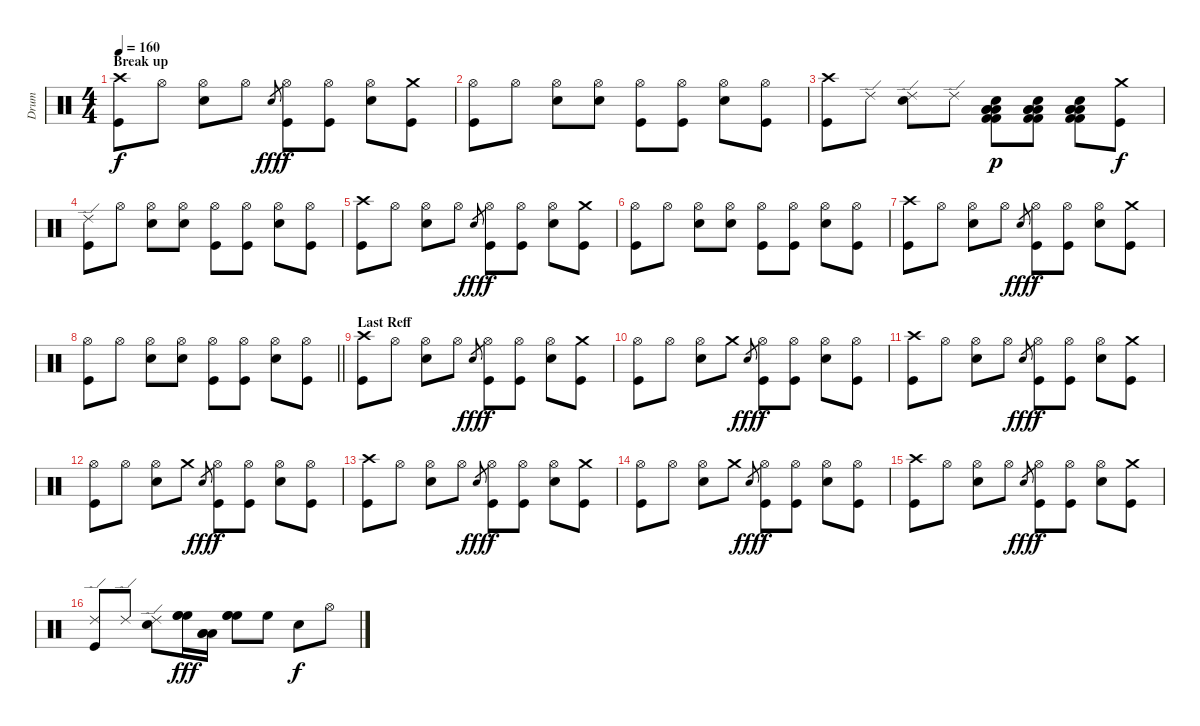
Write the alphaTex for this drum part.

\track ("Drum" "Drum") {instrument percussion}
\staff {score}
\articulation defaults
\ts (4 4)
\section ("" "Break up")
\tempo 160
\clef neutral
\ks c
("Crash high (hit)" "Kick (hit)").8{dy f} "Hi-Hat (open)".8 ("Hi-Hat (open)" "Electric Snare (hit)").8 "Hi-Hat (open)".8 "Electric Snare (hit)".8{gr dy fff} ("Hi-Hat (open)" "Kick (hit)").8{dy f} ("Hi-Hat (open)" "Kick (hit)").8 ("Hi-Hat (open)" "Electric Snare (hit)").8 ("Crash medium (hit)" "Kick (hit)").8 |
("Hi-Hat (open)" "Kick (hit)").8 "Hi-Hat (open)".8 ("Hi-Hat (open)" "Electric Snare (hit)").8 ("Hi-Hat (open)" "Electric Snare (hit)").8 ("Hi-Hat (open)" "Kick (hit)").8 ("Hi-Hat (open)" "Kick (hit)").8 ("Hi-Hat (open)" "Electric Snare (hit)").8 ("Hi-Hat (open)" "Kick (hit)").8 |
("Crash high (hit)" "Kick (hit)").8 "Ride (edge) 2".8 ("Ride (edge) 2" "Electric Snare (hit)").8 "Ride (edge) 2".8 ("Low Tom (hit)" "Low Floor Tom (hit)" "Low Floor Tom (hit)" "Kick (hit) 2" "Snare (hit) 2" "Kick (hit) 2").8{dy p} ("Low Tom (hit)" "Low Floor Tom (hit)" "Low Floor Tom (hit)" "Kick (hit) 2" "Snare (hit) 2" "Kick (hit) 2").8 ("Low Tom (hit)" "Low Floor Tom (hit)" "Low Floor Tom (hit)" "Kick (hit) 2" "Snare (hit) 2" "Kick (hit) 2").8 ("Crash medium (hit)" "Kick (hit)").8{dy f} |
("Ride (edge) 2" "Kick (hit)").8 "Hi-Hat (open)".8 ("Hi-Hat (open)" "Electric Snare (hit)").8 ("Hi-Hat (open)" "Electric Snare (hit)").8 ("Hi-Hat (open)" "Kick (hit)").8 ("Hi-Hat (open)" "Kick (hit)").8 ("Hi-Hat (open)" "Electric Snare (hit)").8 ("Hi-Hat (open)" "Kick (hit)").8 |
("Crash high (hit)" "Kick (hit)").8 "Hi-Hat (open)".8 ("Hi-Hat (open)" "Electric Snare (hit)").8 "Hi-Hat (open)".8 "Electric Snare (hit)".8{gr dy fff} ("Hi-Hat (open)" "Kick (hit)").8{dy f} ("Hi-Hat (open)" "Kick (hit)").8 ("Hi-Hat (open)" "Electric Snare (hit)").8 ("Crash medium (hit)" "Kick (hit)").8 |
("Hi-Hat (open)" "Kick (hit)").8 "Hi-Hat (open)".8 ("Hi-Hat (open)" "Electric Snare (hit)").8 ("Hi-Hat (open)" "Electric Snare (hit)").8 ("Hi-Hat (open)" "Kick (hit)").8 ("Hi-Hat (open)" "Kick (hit)").8 ("Hi-Hat (open)" "Electric Snare (hit)").8 ("Hi-Hat (open)" "Kick (hit)").8 |
("Crash high (hit)" "Kick (hit)").8 "Hi-Hat (open)".8 ("Hi-Hat (open)" "Electric Snare (hit)").8 "Hi-Hat (open)".8 "Electric Snare (hit)".8{gr dy fff} ("Hi-Hat (open)" "Kick (hit)").8{dy f} ("Hi-Hat (open)" "Kick (hit)").8 ("Hi-Hat (open)" "Electric Snare (hit)").8 ("Crash medium (hit)" "Kick (hit)").8 |
\barLineRight lightlight
("Hi-Hat (open)" "Kick (hit)").8 "Hi-Hat (open)".8 ("Hi-Hat (open)" "Electric Snare (hit)").8 ("Hi-Hat (open)" "Electric Snare (hit)").8 ("Hi-Hat (open)" "Kick (hit)").8 ("Hi-Hat (open)" "Kick (hit)").8 ("Hi-Hat (open)" "Electric Snare (hit)").8 ("Hi-Hat (open)" "Kick (hit)").8 |
\section ("" "Last Reff")
("Crash high (hit)" "Kick (hit)").8 "Hi-Hat (open)".8 ("Hi-Hat (open)" "Electric Snare (hit)").8 "Hi-Hat (open)".8 "Electric Snare (hit)".8{gr dy fff} ("Hi-Hat (open)" "Kick (hit)").8{dy f} ("Hi-Hat (open)" "Kick (hit)").8 ("Hi-Hat (open)" "Electric Snare (hit)").8 ("Crash medium (hit)" "Kick (hit)").8 |
("Hi-Hat (open)" "Kick (hit)").8 "Hi-Hat (open)".8 ("Hi-Hat (open)" "Electric Snare (hit)").8 "Crash medium (hit)".8 "Electric Snare (hit)".8{gr dy fff} ("Hi-Hat (open)" "Kick (hit)").8{dy f} ("Hi-Hat (open)" "Kick (hit)").8 ("Hi-Hat (open)" "Electric Snare (hit)").8 ("Hi-Hat (open)" "Kick (hit)").8 |
("Crash high (hit)" "Kick (hit)").8 "Hi-Hat (open)".8 ("Hi-Hat (open)" "Electric Snare (hit)").8 "Hi-Hat (open)".8 "Electric Snare (hit)".8{gr dy fff} ("Hi-Hat (open)" "Kick (hit)").8{dy f} ("Hi-Hat (open)" "Kick (hit)").8 ("Hi-Hat (open)" "Electric Snare (hit)").8 ("Crash medium (hit)" "Kick (hit)").8 |
("Hi-Hat (open)" "Kick (hit)").8 "Hi-Hat (open)".8 ("Hi-Hat (open)" "Electric Snare (hit)").8 "Crash medium (hit)".8 "Electric Snare (hit)".8{gr dy fff} ("Hi-Hat (open)" "Kick (hit)").8{dy f} ("Hi-Hat (open)" "Kick (hit)").8 ("Hi-Hat (open)" "Electric Snare (hit)").8 ("Hi-Hat (open)" "Kick (hit)").8 |
("Crash high (hit)" "Kick (hit)").8 "Hi-Hat (open)".8 ("Hi-Hat (open)" "Electric Snare (hit)").8 "Hi-Hat (open)".8 "Electric Snare (hit)".8{gr dy fff} ("Hi-Hat (open)" "Kick (hit)").8{dy f} ("Hi-Hat (open)" "Kick (hit)").8 ("Hi-Hat (open)" "Electric Snare (hit)").8 ("Crash medium (hit)" "Kick (hit)").8 |
("Hi-Hat (open)" "Kick (hit)").8 "Hi-Hat (open)".8 ("Hi-Hat (open)" "Electric Snare (hit)").8 "Crash medium (hit)".8 "Electric Snare (hit)".8{gr dy fff} ("Hi-Hat (open)" "Kick (hit)").8{dy f} ("Hi-Hat (open)" "Kick (hit)").8 ("Hi-Hat (open)" "Electric Snare (hit)").8 ("Hi-Hat (open)" "Kick (hit)").8 |
("Crash high (hit)" "Kick (hit)").8 "Hi-Hat (open)".8 ("Hi-Hat (open)" "Electric Snare (hit)").8 "Hi-Hat (open)".8 "Electric Snare (hit)".8{gr dy fff} ("Hi-Hat (open)" "Kick (hit)").8{dy f} ("Hi-Hat (open)" "Kick (hit)").8 ("Hi-Hat (open)" "Electric Snare (hit)").8 ("Crash medium (hit)" "Kick (hit)").8 |
("Ride (edge) 2" "Kick (hit)").8 "Ride (edge) 2".8 ("Ride (edge) 2" "Electric Snare (hit)").8 ("High Floor Tom (hit)" "High Floor Tom (hit)" "High Floor Tom (hit)").16{dy fff} ("Low Tom (hit)" "Low Tom (hit)" "Low Tom (hit)").16 ("High Floor Tom (hit)" "High Floor Tom (hit)" "High Floor Tom (hit)").8 "High Floor Tom (hit)".8 "Electric Snare (hit)".8{dy f} "Hi-Hat (open)".8
